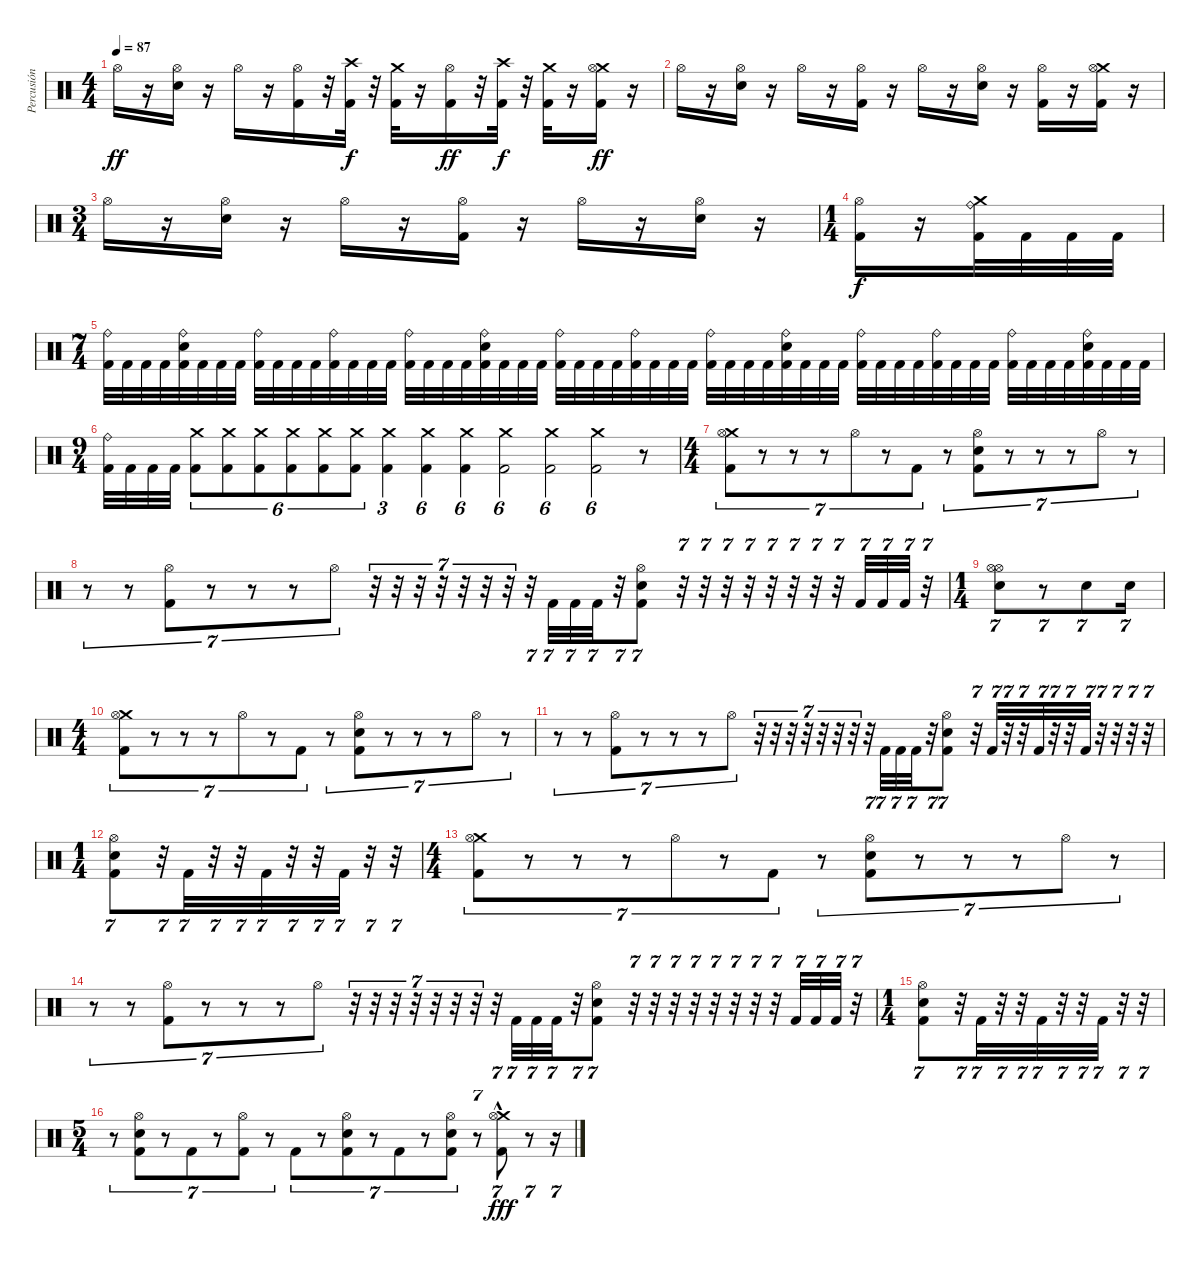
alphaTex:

\track ("Percusión" "Percusión") {instrument percussion}
\staff {score}
\articulation defaults
\ts (4 4)
\tempo 87
\clef neutral
\ks c "Hi-Hat (open)".16{dy ff}
r.16 ("Hi-Hat (open)" "Electric Snare (hit)").16 r.16 "Hi-Hat (open)".16 r.16 ("Hi-Hat (open)" "Kick (hit) 2").16 r.32 ("Crash high (hit)" "Kick (hit) 2").32{dy f} r.32 ("Crash medium (hit)" "Kick (hit) 2").32 r.16 ("Hi-Hat (open)" "Kick (hit) 2").16{dy ff} r.32 ("Crash high (hit)" "Kick (hit) 2").32{dy f} r.32 ("Crash medium (hit)" "Kick (hit) 2").32 r.16 ("Crash medium (hit)" "Hi-Hat (open)" "Kick (hit) 2").16{dy ff} r.16 |
"Hi-Hat (open)".16 r.16 ("Hi-Hat (open)" "Electric Snare (hit)").16 r.16 "Hi-Hat (open)".16 r.16 ("Hi-Hat (open)" "Kick (hit) 2").16 r.16 "Hi-Hat (open)".16 r.16 ("Hi-Hat (open)" "Electric Snare (hit)").16 r.16 ("Hi-Hat (open)" "Kick (hit) 2").16 r.16 ("Crash medium (hit)" "Hi-Hat (open)" "Kick (hit) 2").16 r.16 |
\ts (3 4)
"Hi-Hat (open)".16 r.16 ("Hi-Hat (open)" "Electric Snare (hit)").16 r.16 "Hi-Hat (open)".16 r.16 ("Hi-Hat (open)" "Kick (hit) 2").16 r.16 "Hi-Hat (open)".16 r.16 ("Hi-Hat (open)" "Electric Snare (hit)").16 r.16 |
\ts (1 4)
("Hi-Hat (open)" "Kick (hit) 2").16{dy f} r.16 ("Crash medium (hit)" "Ride (bell)" "Kick (hit) 2").32 "Kick (hit) 2".32 "Kick (hit) 2".32 "Kick (hit) 2".32 |
\ts (7 4)
("Ride (bell)" "Kick (hit) 2").32 "Kick (hit) 2".32 "Kick (hit) 2".32 "Kick (hit) 2".32 ("Ride (bell)" "Electric Snare (hit)" "Kick (hit) 2").32 "Kick (hit) 2".32 "Kick (hit) 2".32 "Kick (hit) 2".32 ("Ride (bell)" "Kick (hit) 2").32 "Kick (hit) 2".32 "Kick (hit) 2".32 "Kick (hit) 2".32 ("Ride (bell)" "Kick (hit) 2").32 "Kick (hit) 2".32 "Kick (hit) 2".32 "Kick (hit) 2".32 ("Ride (bell)" "Kick (hit) 2").32 "Kick (hit) 2".32 "Kick (hit) 2".32 "Kick (hit) 2".32 ("Ride (bell)" "Electric Snare (hit)" "Kick (hit) 2").32 "Kick (hit) 2".32 "Kick (hit) 2".32 "Kick (hit) 2".32 ("Ride (bell)" "Kick (hit) 2").32 "Kick (hit) 2".32 "Kick (hit) 2".32 "Kick (hit) 2".32 ("Ride (bell)" "Kick (hit) 2").32 "Kick (hit) 2".32 "Kick (hit) 2".32 "Kick (hit) 2".32 ("Ride (bell)" "Kick (hit) 2").32 "Kick (hit) 2".32 "Kick (hit) 2".32 "Kick (hit) 2".32 ("Ride (bell)" "Electric Snare (hit)" "Kick (hit) 2").32 "Kick (hit) 2".32 "Kick (hit) 2".32 "Kick (hit) 2".32 ("Ride (bell)" "Kick (hit) 2").32 "Kick (hit) 2".32 "Kick (hit) 2".32 "Kick (hit) 2".32 ("Ride (bell)" "Kick (hit) 2").32 "Kick (hit) 2".32 "Kick (hit) 2".32 "Kick (hit) 2".32 ("Ride (bell)" "Kick (hit) 2").32 "Kick (hit) 2".32 "Kick (hit) 2".32 "Kick (hit) 2".32 ("Ride (bell)" "Electric Snare (hit)" "Kick (hit) 2").32 "Kick (hit) 2".32 "Kick (hit) 2".32 "Kick (hit) 2".32 |
\ts (9 4)
("Ride (bell)" "Kick (hit) 2").32 "Kick (hit) 2".32 "Kick (hit) 2".32 "Kick (hit) 2".32 ("Crash medium (hit)" "Kick (hit) 2").8{tu (6 4)} ("Crash medium (hit)" "Kick (hit) 2").8{tu (6 4)} ("Crash medium (hit)" "Kick (hit) 2").8{tu (6 4)} ("Crash medium (hit)" "Kick (hit) 2").8{tu (6 4)} ("Crash medium (hit)" "Kick (hit) 2").8{tu (6 4)} ("Crash medium (hit)" "Kick (hit) 2").8{tu (6 4)} ("Crash medium (hit)" "Kick (hit) 2").4{tu (3 2)} ("Crash medium (hit)" "Kick (hit) 2").4{tu (6 4)} ("Crash medium (hit)" "Kick (hit) 2").4{tu (6 4)} ("Crash medium (hit)" "Kick (hit) 2").2{tu (6 4)} ("Crash medium (hit)" "Kick (hit) 2").2{tu (6 4)} ("Crash medium (hit)" "Kick (hit) 2").2{tu (6 4)} r.8 |
\ts (4 4)
("Crash medium (hit)" "Hi-Hat (open)" "Kick (hit) 2").8{tu (7 4)} r.8{tu (7 4)} r.8{tu (7 4)} r.8{tu (7 4)} "Hi-Hat (open)".8{tu (7 4)} r.8{tu (7 4)} "Kick (hit) 2".8{tu (7 4)} r.8{tu (7 4)} ("Hi-Hat (open)" "Electric Snare (hit)" "Kick (hit) 2").8{tu (7 4)} r.8{tu (7 4)} r.8{tu (7 4)} r.8{tu (7 4)} "Hi-Hat (open)".8{tu (7 4)} r.8{tu (7 4)} |
r.8{tu (7 4)} r.8{tu (7 4)} ("Hi-Hat (open)" "Kick (hit) 2").8{tu (7 4)} r.8{tu (7 4)} r.8{tu (7 4)} r.8{tu (7 4)} "Hi-Hat (open)".8{tu (7 4)} r.32{tu (7 4)} r.32{tu (7 4)} r.32{tu (7 4)} r.32{tu (7 4)} r.32{tu (7 4)} r.32{tu (7 4)} r.32{tu (7 4)} r.32{tu (7 4)} "Kick (hit) 2".32{tu (7 4)} "Kick (hit) 2".32{tu (7 4)} "Kick (hit) 2".32{tu (7 4)} r.32{tu (7 4)} ("Hi-Hat (open)" "Electric Snare (hit)" "Kick (hit) 2").8{tu (7 4)} r.32{tu (7 4)} r.32{tu (7 4)} r.32{tu (7 4)} r.32{tu (7 4)} r.32{tu (7 4)} r.32{tu (7 4)} r.32{tu (7 4)} r.32{tu (7 4)} "Kick (hit) 2".32{tu (7 4)} "Kick (hit) 2".32{tu (7 4)} "Kick (hit) 2".32{tu (7 4)} r.32{tu (7 4)} |
\ts (1 4)
("Hi-Hat (open)" "Electric Snare (hit)" "Hi-Hat (open)").8{tu (7 4)} r.8{tu (7 4)} "Electric Snare (hit)".8{tu (7 4)} "Electric Snare (hit)".16{tu (7 4)} |
\ts (4 4)
("Crash medium (hit)" "Hi-Hat (open)" "Kick (hit) 2").8{tu (7 4)} r.8{tu (7 4)} r.8{tu (7 4)} r.8{tu (7 4)} "Hi-Hat (open)".8{tu (7 4)} r.8{tu (7 4)} "Kick (hit) 2".8{tu (7 4)} r.8{tu (7 4)} ("Hi-Hat (open)" "Electric Snare (hit)" "Kick (hit) 2").8{tu (7 4)} r.8{tu (7 4)} r.8{tu (7 4)} r.8{tu (7 4)} "Hi-Hat (open)".8{tu (7 4)} r.8{tu (7 4)} |
r.8{tu (7 4)} r.8{tu (7 4)} ("Hi-Hat (open)" "Kick (hit) 2").8{tu (7 4)} r.8{tu (7 4)} r.8{tu (7 4)} r.8{tu (7 4)} "Hi-Hat (open)".8{tu (7 4)} r.32{tu (7 4)} r.32{tu (7 4)} r.32{tu (7 4)} r.32{tu (7 4)} r.32{tu (7 4)} r.32{tu (7 4)} r.32{tu (7 4)} r.32{tu (7 4)} "Kick (hit) 2".32{tu (7 4)} "Kick (hit) 2".32{tu (7 4)} "Kick (hit) 2".32{tu (7 4)} r.32{tu (7 4)} ("Hi-Hat (open)" "Electric Snare (hit)" "Kick (hit) 2").8{tu (7 4)} r.32{tu (7 4)} "Kick (hit) 2".32{tu (7 4)} r.32{tu (7 4)} r.32{tu (7 4)} "Kick (hit) 2".32{tu (7 4)} r.32{tu (7 4)} r.32{tu (7 4)} "Kick (hit) 2".32{tu (7 4)} r.32{tu (7 4)} r.32{tu (7 4)} r.32{tu (7 4)} r.32{tu (7 4)} |
\ts (1 4)
("Hi-Hat (open)" "Electric Snare (hit)" "Kick (hit) 2").8{tu (7 4)} r.32{tu (7 4)} "Kick (hit) 2".32{tu (7 4)} r.32{tu (7 4)} r.32{tu (7 4)} "Kick (hit) 2".32{tu (7 4)} r.32{tu (7 4)} r.32{tu (7 4)} "Kick (hit) 2".32{tu (7 4)} r.32{tu (7 4)} r.32{tu (7 4)} |
\ts (4 4)
("Crash medium (hit)" "Hi-Hat (open)" "Kick (hit) 2").8{tu (7 4)} r.8{tu (7 4)} r.8{tu (7 4)} r.8{tu (7 4)} "Hi-Hat (open)".8{tu (7 4)} r.8{tu (7 4)} "Kick (hit) 2".8{tu (7 4)} r.8{tu (7 4)} ("Hi-Hat (open)" "Electric Snare (hit)" "Kick (hit) 2").8{tu (7 4)} r.8{tu (7 4)} r.8{tu (7 4)} r.8{tu (7 4)} "Hi-Hat (open)".8{tu (7 4)} r.8{tu (7 4)} |
r.8{tu (7 4)} r.8{tu (7 4)} ("Hi-Hat (open)" "Kick (hit) 2").8{tu (7 4)} r.8{tu (7 4)} r.8{tu (7 4)} r.8{tu (7 4)} "Hi-Hat (open)".8{tu (7 4)} r.32{tu (7 4)} r.32{tu (7 4)} r.32{tu (7 4)} r.32{tu (7 4)} r.32{tu (7 4)} r.32{tu (7 4)} r.32{tu (7 4)} r.32{tu (7 4)} "Kick (hit) 2".32{tu (7 4)} "Kick (hit) 2".32{tu (7 4)} "Kick (hit) 2".32{tu (7 4)} r.32{tu (7 4)} ("Hi-Hat (open)" "Electric Snare (hit)" "Kick (hit) 2").8{tu (7 4)} r.32{tu (7 4)} r.32{tu (7 4)} r.32{tu (7 4)} r.32{tu (7 4)} r.32{tu (7 4)} r.32{tu (7 4)} r.32{tu (7 4)} r.32{tu (7 4)} "Kick (hit) 2".32{tu (7 4)} "Kick (hit) 2".32{tu (7 4)} "Kick (hit) 2".32{tu (7 4)} r.32{tu (7 4)} |
\ts (1 4)
("Hi-Hat (open)" "Electric Snare (hit)" "Kick (hit) 2").8{tu (7 4)} r.32{tu (7 4)} "Kick (hit) 2".32{tu (7 4)} r.32{tu (7 4)} r.32{tu (7 4)} "Kick (hit) 2".32{tu (7 4)} r.32{tu (7 4)} r.32{tu (7 4)} "Kick (hit) 2".32{tu (7 4)} r.32{tu (7 4)} r.32{tu (7 4)} |
\ts (5 4)
r.8{tu (7 4)} ("Hi-Hat (open)" "Electric Snare (hit)" "Kick (hit) 2").8{tu (7 4)} r.8{tu (7 4)} "Kick (hit) 2".8{tu (7 4)} r.8{tu (7 4)} ("Hi-Hat (open)" "Kick (hit) 2").8{tu (7 4)} r.8{tu (7 4)} "Kick (hit) 2".8{tu (7 4)} r.8{tu (7 4)} ("Hi-Hat (open)" "Electric Snare (hit)" "Kick (hit) 2").8{tu (7 4)} r.8{tu (7 4)} "Kick (hit) 2".8{tu (7 4)} r.8{tu (7 4)} ("Hi-Hat (open)" "Electric Snare (hit)" "Kick (hit) 2").8{tu (7 4)} r.8{tu (7 4)} ("Crash medium (hit)"{hac} "Hi-Hat (open)"{hac} "Kick (hit) 2"{hac}).8{tu (7 4) dy fff} r.8{tu (7 4)} r.16{tu (7 4)}
